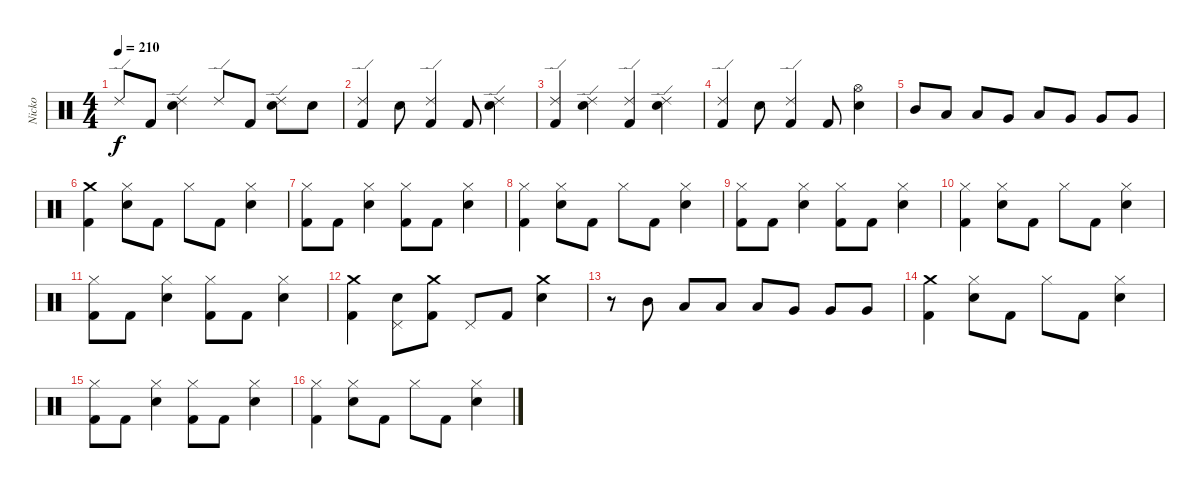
\track ("Nicko" "Nicko") {instrument percussion}
\staff {score}
\articulation defaults
\ts (4 4)
\tempo 210
\clef neutral
\ks c "Ride (edge) 2".8{dy f} "Kick (hit) 2".8
("Ride (edge) 2" "Electric Snare (hit)").4 "Ride (edge) 2".8 "Kick (hit) 2".8 ("Ride (edge) 2" "Electric Snare (hit)").8 "Electric Snare (hit)".8 |
("Ride (edge) 2" "Kick (hit) 2").4 "Electric Snare (hit)".8 ("Ride (edge) 2" "Kick (hit) 2").4 "Kick (hit) 2".8 ("Ride (edge) 2" "Electric Snare (hit)").4 |
("Ride (edge) 2" "Kick (hit) 2").4 ("Ride (edge) 2" "Electric Snare (hit)").4 ("Ride (edge) 2" "Kick (hit) 2").4 ("Ride (edge) 2" "Electric Snare (hit)").4 |
("Ride (edge) 2" "Kick (hit) 2").4 "Electric Snare (hit)".8 ("Ride (edge) 2" "Kick (hit) 2").4 "Kick (hit) 2".8 ("Hi-Hat (open)" "Electric Snare (hit)").4 |
"Mid Tom (hit)".8 "Low Tom (hit)".8 "Low Tom (hit)".8 "Very Low Tom (hit)".8 "Low Tom (hit)".8 "Very Low Tom (hit)".8 "Very Low Tom (hit)".8 "Very Low Tom (hit)".8 |
("Crash medium (hit)" "Kick (hit) 2").4 ("Hi-Hat (closed)" "Electric Snare (hit)").8 "Kick (hit) 2".8 "Hi-Hat (closed)".8 "Kick (hit) 2".8 ("Hi-Hat (closed)" "Electric Snare (hit)").4 |
("Hi-Hat (closed)" "Kick (hit) 2").8 "Kick (hit) 2".8 ("Hi-Hat (closed)" "Electric Snare (hit)").4 ("Hi-Hat (closed)" "Kick (hit) 2").8 "Kick (hit) 2".8 ("Hi-Hat (closed)" "Electric Snare (hit)").4 |
("Hi-Hat (closed)" "Kick (hit) 2").4 ("Hi-Hat (closed)" "Electric Snare (hit)").8 "Kick (hit) 2".8 "Hi-Hat (closed)".8 "Kick (hit) 2".8 ("Hi-Hat (closed)" "Electric Snare (hit)").4 |
("Hi-Hat (closed)" "Kick (hit) 2").8 "Kick (hit) 2".8 ("Hi-Hat (closed)" "Electric Snare (hit)").4 ("Hi-Hat (closed)" "Kick (hit) 2").8 "Kick (hit) 2".8 ("Hi-Hat (closed)" "Electric Snare (hit)").4 |
("Hi-Hat (closed)" "Kick (hit) 2").4 ("Hi-Hat (closed)" "Electric Snare (hit)").8 "Kick (hit) 2".8 "Hi-Hat (closed)".8 "Kick (hit) 2".8 ("Hi-Hat (closed)" "Electric Snare (hit)").4 |
("Hi-Hat (closed)" "Kick (hit) 2").8 "Kick (hit) 2".8 ("Hi-Hat (closed)" "Electric Snare (hit)").4 ("Hi-Hat (closed)" "Kick (hit) 2").8 "Kick (hit) 2".8 ("Hi-Hat (closed)" "Electric Snare (hit)").4 |
("Crash medium (hit)" "Kick (hit) 2").4 ("Pedal Hi-Hat (hit)" "Electric Snare (hit)").8 ("Crash medium (hit)" "Kick (hit) 2").8 "Pedal Hi-Hat (hit)".8 "Kick (hit) 2".8 ("Crash medium (hit)" "Electric Snare (hit)").4 |
r.8 "Mid Tom (hit)".8 "Low Tom (hit)".8 "Low Tom (hit)".8 "Low Tom (hit)".8 "Very Low Tom (hit)".8 "Very Low Tom (hit)".8 "Very Low Tom (hit)".8 |
("Crash medium (hit)" "Kick (hit) 2").4 ("Hi-Hat (closed)" "Electric Snare (hit)").8 "Kick (hit) 2".8 "Hi-Hat (closed)".8 "Kick (hit) 2".8 ("Hi-Hat (closed)" "Electric Snare (hit)").4 |
("Hi-Hat (closed)" "Kick (hit) 2").8 "Kick (hit) 2".8 ("Hi-Hat (closed)" "Electric Snare (hit)").4 ("Hi-Hat (closed)" "Kick (hit) 2").8 "Kick (hit) 2".8 ("Hi-Hat (closed)" "Electric Snare (hit)").4 |
("Hi-Hat (closed)" "Kick (hit) 2").4 ("Hi-Hat (closed)" "Electric Snare (hit)").8 "Kick (hit) 2".8 "Hi-Hat (closed)".8 "Kick (hit) 2".8 ("Hi-Hat (closed)" "Electric Snare (hit)").4
